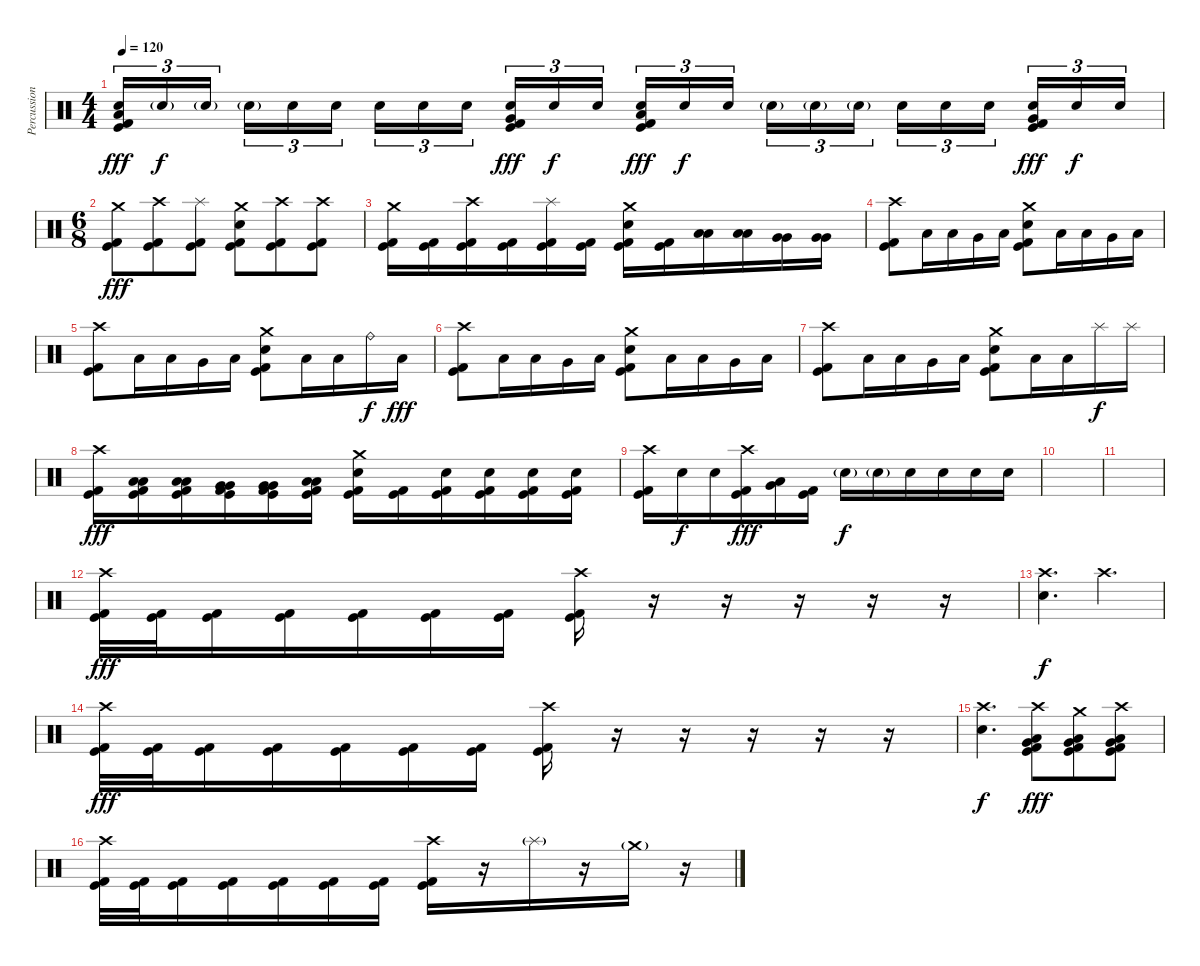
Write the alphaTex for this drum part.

\track ("Percussion" "Percussion") {instrument percussion}
\staff {score}
\articulation defaults
\ts (4 4)
\tempo 120
\clef neutral
\ks c
("Low Tom (hit)" "Electric Snare (hit)" "Kick (hit)" "Kick (hit) 2").16{tu (3 2) dy fff} "Electric Snare (hit)"{g}.16{tu (3 2) dy f} "Electric Snare (hit)"{g}.16{tu (3 2) beam splitsecondary} "Electric Snare (hit)"{g}.16{tu (3 2)} "Electric Snare (hit)".16{tu (3 2)} "Electric Snare (hit)".16{tu (3 2)} "Electric Snare (hit)".16{tu (3 2)} "Electric Snare (hit)".16{tu (3 2)} "Electric Snare (hit)".16{tu (3 2) beam splitsecondary} ("Very Low Tom (hit)" "Electric Snare (hit)" "Kick (hit)" "Kick (hit) 2").16{tu (3 2) dy fff} "Electric Snare (hit)".16{tu (3 2) dy f} "Electric Snare (hit)".16{tu (3 2)} ("Low Tom (hit)" "Electric Snare (hit)" "Kick (hit)" "Kick (hit) 2").16{tu (3 2) dy fff} "Electric Snare (hit)".16{tu (3 2) dy f} "Electric Snare (hit)".16{tu (3 2) beam splitsecondary} "Electric Snare (hit)"{g}.16{tu (3 2)} "Electric Snare (hit)"{g}.16{tu (3 2)} "Electric Snare (hit)"{g}.16{tu (3 2)} "Electric Snare (hit)".16{tu (3 2)} "Electric Snare (hit)".16{tu (3 2)} "Electric Snare (hit)".16{tu (3 2) beam splitsecondary} ("Very Low Tom (hit)" "Electric Snare (hit)" "Kick (hit)" "Kick (hit) 2").16{tu (3 2) dy fff} "Electric Snare (hit)".16{tu (3 2) dy f} "Electric Snare (hit)".16{tu (3 2)} |
\ts (6 8)
("Crash medium (hit)" "Kick (hit)" "Kick (hit) 2").8{dy fff} ("Crash high (hit)" "Kick (hit)" "Kick (hit) 2").8 ("Splash (hit)" "Kick (hit)" "Kick (hit) 2").8 ("Crash medium (hit)" "Electric Snare (hit)" "Kick (hit)" "Kick (hit) 2").8 ("Crash high (hit)" "Kick (hit)" "Kick (hit) 2").8 ("Crash high (hit)" "Kick (hit)" "Kick (hit) 2").8 |
("Crash medium (hit)" "Kick (hit)" "Kick (hit) 2").16 ("Kick (hit)" "Kick (hit) 2").16 ("Crash high (hit)" "Kick (hit)" "Kick (hit) 2").16 ("Kick (hit)" "Kick (hit) 2").16 ("Splash (hit)" "Kick (hit)" "Kick (hit) 2").16 ("Kick (hit)" "Kick (hit) 2").16 ("Crash medium (hit)" "Electric Snare (hit)" "Kick (hit)" "Kick (hit) 2").16 ("Kick (hit)" "Kick (hit) 2").16 ("Low Tom (hit)" "Low Tom (hit)").16 ("Low Tom (hit)" "Low Tom (hit)").16 ("Very Low Tom (hit)" "Very Low Tom (hit)").16 ("Very Low Tom (hit)" "Very Low Tom (hit)").16 |
("Crash high (hit)" "Kick (hit)" "Kick (hit) 2").8 "Low Tom (hit)".16 "Low Tom (hit)".16 "Very Low Tom (hit)".16 "Low Floor Tom (hit)".16 ("Crash medium (hit)" "Electric Snare (hit)" "Kick (hit)" "Kick (hit) 2").8 "Low Tom (hit)".16 "Low Tom (hit)".16 "Very Low Tom (hit)".16 "Low Floor Tom (hit)".16 |
("Crash high (hit)" "Kick (hit)" "Kick (hit) 2").8 "Low Tom (hit)".16 "Low Tom (hit)".16 "Very Low Tom (hit)".16 "Low Floor Tom (hit)".16 ("Crash medium (hit)" "Electric Snare (hit)" "Kick (hit)" "Kick (hit) 2").8 "Low Tom (hit)".16 "Low Tom (hit)".16 "Ride (bell)".16{dy f} "Low Floor Tom (hit)".16{dy fff} |
("Crash high (hit)" "Kick (hit)" "Kick (hit) 2").8 "Low Tom (hit)".16 "Low Tom (hit)".16 "Very Low Tom (hit)".16 "Low Floor Tom (hit)".16 ("Crash medium (hit)" "Electric Snare (hit)" "Kick (hit)" "Kick (hit) 2").8 "Low Tom (hit)".16 "Low Tom (hit)".16 "Very Low Tom (hit)".16 "Low Floor Tom (hit)".16 |
("Crash high (hit)" "Kick (hit)" "Kick (hit) 2").8 "Low Tom (hit)".16 "Low Tom (hit)".16 "Very Low Tom (hit)".16 "Low Floor Tom (hit)".16 ("Crash medium (hit)" "Electric Snare (hit)" "Kick (hit)" "Kick (hit) 2").8 "Low Tom (hit)".16 "Low Tom (hit)".16 "Splash (hit)".16{dy f} "Splash (hit)".16 |
("Crash high (hit)" "Kick (hit)" "Kick (hit) 2").16{dy fff} ("Low Tom (hit)" "Low Tom (hit)" "Kick (hit)" "Kick (hit) 2").16 ("Low Tom (hit)" "Low Tom (hit)" "Kick (hit)" "Kick (hit) 2").16 ("Very Low Tom (hit)" "Very Low Tom (hit)" "Kick (hit)" "Kick (hit) 2").16 ("Very Low Tom (hit)" "Very Low Tom (hit)" "Kick (hit)" "Kick (hit) 2").16 ("Low Floor Tom (hit)" "Low Floor Tom (hit)" "Kick (hit)" "Kick (hit) 2").16 ("Crash medium (hit)" "Electric Snare (hit)" "Kick (hit)" "Kick (hit) 2").16 ("Kick (hit)" "Kick (hit) 2").16 ("Electric Snare (hit)" "Kick (hit)" "Kick (hit) 2").16 ("Electric Snare (hit)" "Kick (hit)" "Kick (hit) 2").16 ("Electric Snare (hit)" "Kick (hit)" "Kick (hit) 2").16 ("Electric Snare (hit)" "Kick (hit)" "Kick (hit) 2").16 |
("Crash high (hit)" "Kick (hit)" "Kick (hit) 2").16 "Electric Snare (hit)".16{dy f} "Electric Snare (hit)".16 ("Crash high (hit)" "Kick (hit)" "Kick (hit) 2").16{dy fff} ("Very Low Tom (hit)" "Low Tom (hit)").16 ("Kick (hit)" "Kick (hit) 2").16 "Electric Snare (hit)"{g}.16{dy f} "Electric Snare (hit)"{g}.16 "Electric Snare (hit)".16 "Electric Snare (hit)".16 "Electric Snare (hit)".16 "Electric Snare (hit)".16 |
|
|
("Crash high (hit)" "Kick (hit)" "Kick (hit) 2").32{dy fff} ("Kick (hit)" "Kick (hit) 2").32 ("Kick (hit)" "Kick (hit) 2").16 ("Kick (hit)" "Kick (hit) 2").16 ("Kick (hit)" "Kick (hit) 2").16 ("Kick (hit)" "Kick (hit) 2").16 ("Kick (hit)" "Kick (hit) 2").16 ("Crash high (hit)" "Kick (hit)" "Kick (hit) 2").16 r.16 r.16 r.16 r.16 r.16 |
("Crash high (hit)" "Electric Snare (hit)").4{d dy f} "Crash high (hit)".4{d} |
("Crash high (hit)" "Kick (hit)" "Kick (hit) 2").32{dy fff} ("Kick (hit)" "Kick (hit) 2").32 ("Kick (hit)" "Kick (hit) 2").16 ("Kick (hit)" "Kick (hit) 2").16 ("Kick (hit)" "Kick (hit) 2").16 ("Kick (hit)" "Kick (hit) 2").16 ("Kick (hit)" "Kick (hit) 2").16 ("Crash high (hit)" "Kick (hit)" "Kick (hit) 2").16 r.16 r.16 r.16 r.16 r.16 |
("Crash high (hit)" "Electric Snare (hit)").4{d dy f} ("Crash high (hit)" "Very Low Tom (hit)" "Low Tom (hit)" "Kick (hit)" "Kick (hit) 2").8{dy fff} ("Crash medium (hit)" "Very Low Tom (hit)" "Low Tom (hit)" "Kick (hit)" "Kick (hit) 2").8 ("Crash high (hit)" "Very Low Tom (hit)" "Low Tom (hit)" "Kick (hit)" "Kick (hit) 2").8 |
("Crash high (hit)" "Kick (hit)" "Kick (hit) 2").32 ("Kick (hit)" "Kick (hit) 2").32 ("Kick (hit)" "Kick (hit) 2").16 ("Kick (hit)" "Kick (hit) 2").16 ("Kick (hit)" "Kick (hit) 2").16 ("Kick (hit)" "Kick (hit) 2").16 ("Kick (hit)" "Kick (hit) 2").16 ("Crash high (hit)" "Kick (hit)" "Kick (hit) 2").16 r.16 "Splash (hit)"{g}.16 r.16 "Crash medium (hit)"{g}.16 r.16
